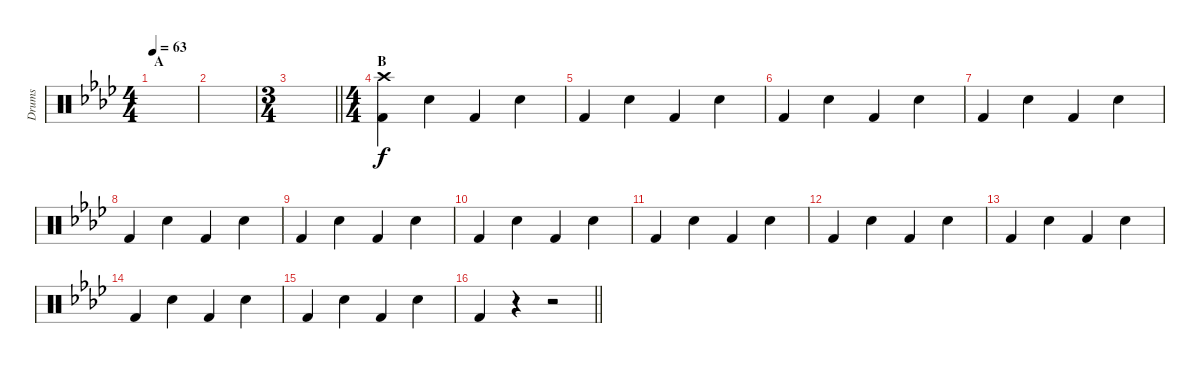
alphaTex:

\track ("Drums" "Drums") {instrument percussion}
\staff {score}
\articulation defaults
\ts (4 4)
\section ("" "A")
\tempo 63
\clef neutral
\ks fminor
|
|
\ts (3 4)
\barLineRight lightlight
|
\ts (4 4)
\section ("" "B")
("Crash high (hit)" "Kick (hit) 2").4 "Electric Snare (hit)".4{dy f} "Kick (hit) 2".4 "Electric Snare (hit)".4 |
"Kick (hit) 2".4 "Electric Snare (hit)".4 "Kick (hit) 2".4 "Electric Snare (hit)".4 |
"Kick (hit) 2".4 "Electric Snare (hit)".4 "Kick (hit) 2".4 "Electric Snare (hit)".4 |
"Kick (hit) 2".4 "Electric Snare (hit)".4 "Kick (hit) 2".4 "Electric Snare (hit)".4 |
"Kick (hit) 2".4 "Electric Snare (hit)".4 "Kick (hit) 2".4 "Electric Snare (hit)".4 |
"Kick (hit) 2".4 "Electric Snare (hit)".4 "Kick (hit) 2".4 "Electric Snare (hit)".4 |
"Kick (hit) 2".4 "Electric Snare (hit)".4 "Kick (hit) 2".4 "Electric Snare (hit)".4 |
"Kick (hit) 2".4 "Electric Snare (hit)".4 "Kick (hit) 2".4 "Electric Snare (hit)".4 |
"Kick (hit) 2".4 "Electric Snare (hit)".4 "Kick (hit) 2".4 "Electric Snare (hit)".4 |
"Kick (hit) 2".4 "Electric Snare (hit)".4 "Kick (hit) 2".4 "Electric Snare (hit)".4 |
"Kick (hit) 2".4 "Electric Snare (hit)".4 "Kick (hit) 2".4 "Electric Snare (hit)".4 |
"Kick (hit) 2".4 "Electric Snare (hit)".4 "Kick (hit) 2".4 "Electric Snare (hit)".4 |
\barLineRight lightlight "Kick (hit) 2".4
r.4 r.2
